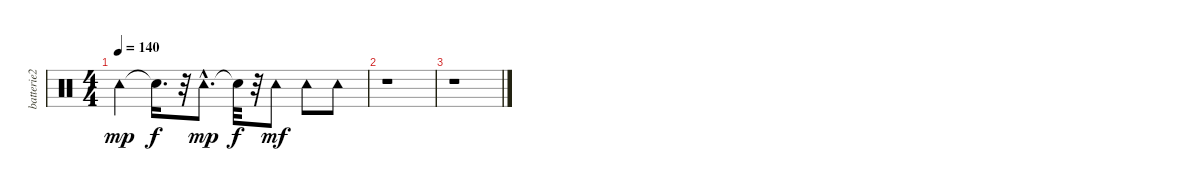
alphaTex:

\track ("batterie2" "batterie2") {instrument percussion}
\staff {score}
\articulation defaults
\ts (4 4)
\tempo 140
\clef neutral
\ks c "Tambourine (hit)".4{dy mp} "Snare (hit)"{t}.16{d dy f}
r.32 "Tambourine (hit)"{hac}.8{d dy mp} "Snare (hit)"{t}.32{dy f} r.32 "Tambourine (hit)".8{dy mf} "Tambourine (hit)".8 "Tambourine (hit)".8 |
r.1 |
r.1
